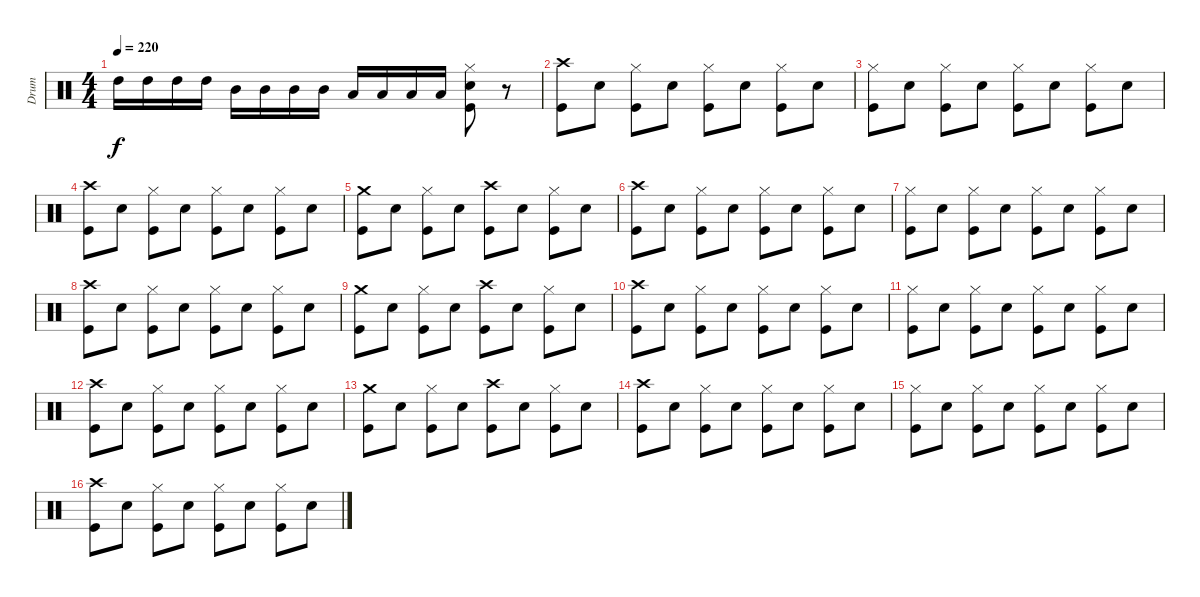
\track ("Drum" "Drum") {instrument percussion}
\staff {score}
\articulation defaults
\ts (4 4)
\tempo 220
\clef neutral
\ks c "High Tom (hit)".16{dy f} "High Tom (hit)".16 "High Tom (hit)".16 "High Tom (hit)".16 "Mid Tom (hit)".16 "Mid Tom (hit)".16 "Mid Tom (hit)".16 "Mid Tom (hit)".16 "Low Tom (hit)".16 "Low Tom (hit)".16 "Low Tom (hit)".16 "Low Tom (hit)".16
("Hi-Hat (closed)" "Snare (hit) 2" "Kick (hit)").8 r.8 |
("Crash high (hit)" "Kick (hit)").8 "Snare (hit) 2".8 ("Hi-Hat (closed)" "Kick (hit)").8 "Snare (hit) 2".8 ("Hi-Hat (closed)" "Kick (hit)").8 "Snare (hit) 2".8 ("Hi-Hat (closed)" "Kick (hit)").8 "Snare (hit) 2".8 |
("Hi-Hat (closed)" "Kick (hit)").8 "Snare (hit) 2".8 ("Hi-Hat (closed)" "Kick (hit)").8 "Snare (hit) 2".8 ("Hi-Hat (closed)" "Kick (hit)").8 "Snare (hit) 2".8 ("Hi-Hat (closed)" "Kick (hit)").8 "Snare (hit) 2".8 |
("Crash high (hit)" "Kick (hit)").8 "Snare (hit) 2".8 ("Hi-Hat (closed)" "Kick (hit)").8 "Snare (hit) 2".8 ("Hi-Hat (closed)" "Kick (hit)").8 "Snare (hit) 2".8 ("Hi-Hat (closed)" "Kick (hit)").8 "Snare (hit) 2".8 |
("Crash medium (hit)" "Kick (hit)").8 "Snare (hit) 2".8 ("Hi-Hat (closed)" "Kick (hit)").8 "Snare (hit) 2".8 ("Crash high (hit)" "Kick (hit)").8 "Snare (hit) 2".8 ("Hi-Hat (closed)" "Kick (hit)").8 "Snare (hit) 2".8 |
("Crash high (hit)" "Kick (hit)").8 "Snare (hit) 2".8 ("Hi-Hat (closed)" "Kick (hit)").8 "Snare (hit) 2".8 ("Hi-Hat (closed)" "Kick (hit)").8 "Snare (hit) 2".8 ("Hi-Hat (closed)" "Kick (hit)").8 "Snare (hit) 2".8 |
("Hi-Hat (closed)" "Kick (hit)").8 "Snare (hit) 2".8 ("Hi-Hat (closed)" "Kick (hit)").8 "Snare (hit) 2".8 ("Hi-Hat (closed)" "Kick (hit)").8 "Snare (hit) 2".8 ("Hi-Hat (closed)" "Kick (hit)").8 "Snare (hit) 2".8 |
("Crash high (hit)" "Kick (hit)").8 "Snare (hit) 2".8 ("Hi-Hat (closed)" "Kick (hit)").8 "Snare (hit) 2".8 ("Hi-Hat (closed)" "Kick (hit)").8 "Snare (hit) 2".8 ("Hi-Hat (closed)" "Kick (hit)").8 "Snare (hit) 2".8 |
("Crash medium (hit)" "Kick (hit)").8 "Snare (hit) 2".8 ("Hi-Hat (closed)" "Kick (hit)").8 "Snare (hit) 2".8 ("Crash high (hit)" "Kick (hit)").8 "Snare (hit) 2".8 ("Hi-Hat (closed)" "Kick (hit)").8 "Snare (hit) 2".8 |
("Crash high (hit)" "Kick (hit)").8 "Snare (hit) 2".8 ("Hi-Hat (closed)" "Kick (hit)").8 "Snare (hit) 2".8 ("Hi-Hat (closed)" "Kick (hit)").8 "Snare (hit) 2".8 ("Hi-Hat (closed)" "Kick (hit)").8 "Snare (hit) 2".8 |
("Hi-Hat (closed)" "Kick (hit)").8 "Snare (hit) 2".8 ("Hi-Hat (closed)" "Kick (hit)").8 "Snare (hit) 2".8 ("Hi-Hat (closed)" "Kick (hit)").8 "Snare (hit) 2".8 ("Hi-Hat (closed)" "Kick (hit)").8 "Snare (hit) 2".8 |
("Crash high (hit)" "Kick (hit)").8 "Snare (hit) 2".8 ("Hi-Hat (closed)" "Kick (hit)").8 "Snare (hit) 2".8 ("Hi-Hat (closed)" "Kick (hit)").8 "Snare (hit) 2".8 ("Hi-Hat (closed)" "Kick (hit)").8 "Snare (hit) 2".8 |
("Crash medium (hit)" "Kick (hit)").8 "Snare (hit) 2".8 ("Hi-Hat (closed)" "Kick (hit)").8 "Snare (hit) 2".8 ("Crash high (hit)" "Kick (hit)").8 "Snare (hit) 2".8 ("Hi-Hat (closed)" "Kick (hit)").8 "Snare (hit) 2".8 |
("Crash high (hit)" "Kick (hit)").8 "Snare (hit) 2".8 ("Hi-Hat (closed)" "Kick (hit)").8 "Snare (hit) 2".8 ("Hi-Hat (closed)" "Kick (hit)").8 "Snare (hit) 2".8 ("Hi-Hat (closed)" "Kick (hit)").8 "Snare (hit) 2".8 |
("Hi-Hat (closed)" "Kick (hit)").8 "Snare (hit) 2".8 ("Hi-Hat (closed)" "Kick (hit)").8 "Snare (hit) 2".8 ("Hi-Hat (closed)" "Kick (hit)").8 "Snare (hit) 2".8 ("Hi-Hat (closed)" "Kick (hit)").8 "Snare (hit) 2".8 |
("Crash high (hit)" "Kick (hit)").8 "Snare (hit) 2".8 ("Hi-Hat (closed)" "Kick (hit)").8 "Snare (hit) 2".8 ("Hi-Hat (closed)" "Kick (hit)").8 "Snare (hit) 2".8 ("Hi-Hat (closed)" "Kick (hit)").8 "Snare (hit) 2".8
